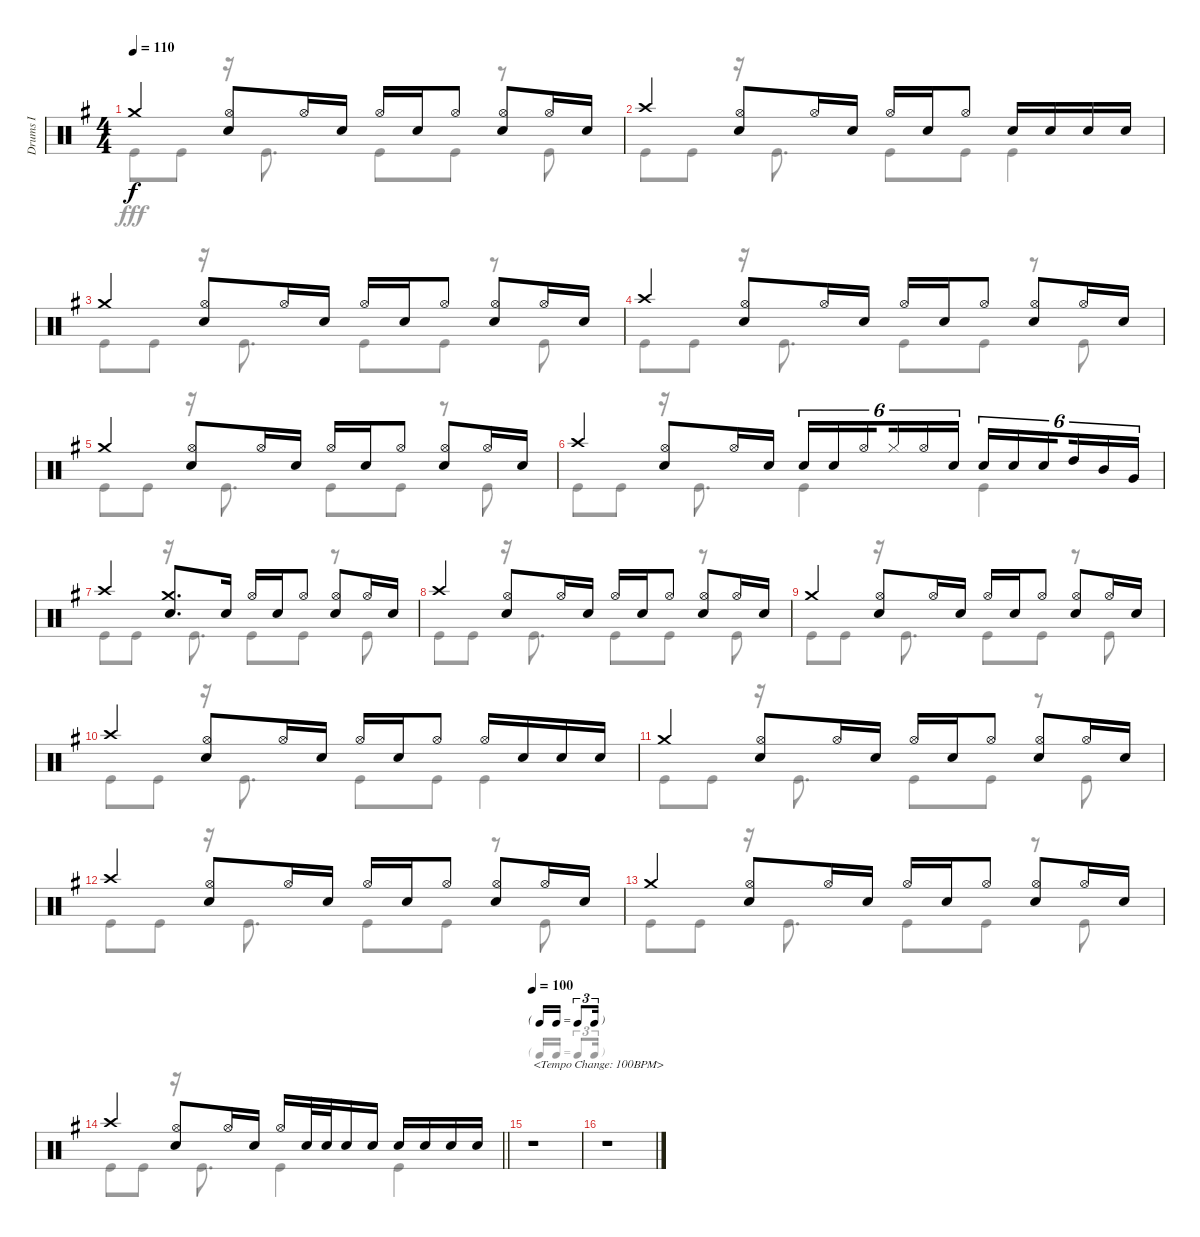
\track ("Drums I" "Drums I") {instrument percussion}
\staff {score}
\articulation defaults
\voice
\ts (4 4)
\tempo 110
\clef neutral
\ks g "Crash medium (hit)".4{dy f}
("Hi-Hat (open)" "Snare (hit) 2").8 "Hi-Hat (open)".16 "Snare (hit) 2".16 "Hi-Hat (open)".16 "Snare (hit) 2".16 "Hi-Hat (open)".8 ("Hi-Hat (open)" "Snare (hit) 2").8 "Hi-Hat (open)".16 "Snare (hit) 2".16 |
"Crash high (hit)".4 ("Hi-Hat (open)" "Snare (hit) 2").8 "Hi-Hat (open)".16 "Snare (hit) 2".16 "Hi-Hat (open)".16 "Snare (hit) 2".16 "Hi-Hat (open)".8 "Snare (hit) 2".16 "Snare (hit) 2".16 "Snare (hit) 2".16 "Snare (hit) 2".16 |
"Crash medium (hit)".4 ("Hi-Hat (open)" "Snare (hit) 2").8 "Hi-Hat (open)".16 "Snare (hit) 2".16 "Hi-Hat (open)".16 "Snare (hit) 2".16 "Hi-Hat (open)".8 ("Hi-Hat (open)" "Snare (hit) 2").8 "Hi-Hat (open)".16 "Snare (hit) 2".16 |
"Crash high (hit)".4 ("Hi-Hat (open)" "Snare (hit) 2").8 "Hi-Hat (open)".16 "Snare (hit) 2".16 "Hi-Hat (open)".16 "Snare (hit) 2".16 "Hi-Hat (open)".8 ("Hi-Hat (open)" "Snare (hit) 2").8 "Hi-Hat (open)".16 "Snare (hit) 2".16 |
"Crash medium (hit)".4 ("Hi-Hat (open)" "Snare (hit) 2").8 "Hi-Hat (open)".16 "Snare (hit) 2".16 "Hi-Hat (open)".16 "Snare (hit) 2".16 "Hi-Hat (open)".8 ("Hi-Hat (open)" "Snare (hit) 2").8 "Hi-Hat (open)".16 "Snare (hit) 2".16 |
"Crash high (hit)".4 ("Hi-Hat (open)" "Snare (hit) 2").8 "Hi-Hat (open)".16 "Snare (hit) 2".16 "Snare (hit) 2".16{tu (6 4)} "Snare (hit) 2".16{tu (6 4)} "Hi-Hat (open)".16{tu (6 4) beam splitsecondary} "Hi-Hat (closed)".16{tu (6 4)} "Hi-Hat (open)".16{tu (6 4)} "Snare (hit) 2".16{tu (6 4)} "Snare (hit) 2".16{tu (6 4)} "Snare (hit) 2".16{tu (6 4)} "Snare (hit) 2".16{tu (6 4) beam splitsecondary} "High Tom (hit)".16{tu (6 4)} "Mid Tom (hit)".16{tu (6 4)} "Very Low Tom (hit)".16{tu (6 4)} |
"Crash high (hit)".4 ("Crash medium (hit)" "Snare (hit) 2").8{d} "Snare (hit) 2".16 "Hi-Hat (open)".16 "Snare (hit) 2".16 "Hi-Hat (open)".8 ("Hi-Hat (open)" "Snare (hit) 2").8 "Hi-Hat (open)".16 "Snare (hit) 2".16 |
"Crash high (hit)".4 ("Hi-Hat (open)" "Snare (hit) 2").8 "Hi-Hat (open)".16 "Snare (hit) 2".16 "Hi-Hat (open)".16 "Snare (hit) 2".16 "Hi-Hat (open)".8 ("Hi-Hat (open)" "Snare (hit) 2").8 "Hi-Hat (open)".16 "Snare (hit) 2".16 |
"Crash medium (hit)".4 ("Hi-Hat (open)" "Snare (hit) 2").8 "Hi-Hat (open)".16 "Snare (hit) 2".16 "Hi-Hat (open)".16 "Snare (hit) 2".16 "Hi-Hat (open)".8 ("Hi-Hat (open)" "Snare (hit) 2").8 "Hi-Hat (open)".16 "Snare (hit) 2".16 |
"Crash high (hit)".4 ("Hi-Hat (open)" "Snare (hit) 2").8 "Hi-Hat (open)".16 "Snare (hit) 2".16 "Hi-Hat (open)".16 "Snare (hit) 2".16 "Hi-Hat (open)".8 "Hi-Hat (open)".16 "Snare (hit) 2".16 "Snare (hit) 2".16 "Snare (hit) 2".16 |
"Crash medium (hit)".4 ("Hi-Hat (open)" "Snare (hit) 2").8 "Hi-Hat (open)".16 "Snare (hit) 2".16 "Hi-Hat (open)".16 "Snare (hit) 2".16 "Hi-Hat (open)".8 ("Hi-Hat (open)" "Snare (hit) 2").8 "Hi-Hat (open)".16 "Snare (hit) 2".16 |
"Crash high (hit)".4 ("Hi-Hat (open)" "Snare (hit) 2").8 "Hi-Hat (open)".16 "Snare (hit) 2".16 "Hi-Hat (open)".16 "Snare (hit) 2".16 "Hi-Hat (open)".8 ("Hi-Hat (open)" "Snare (hit) 2").8 "Hi-Hat (open)".16 "Snare (hit) 2".16 |
"Crash medium (hit)".4 ("Hi-Hat (open)" "Snare (hit) 2").8 "Hi-Hat (open)".16 "Snare (hit) 2".16 "Hi-Hat (open)".16 "Snare (hit) 2".16 "Hi-Hat (open)".8 ("Hi-Hat (open)" "Snare (hit) 2").8 "Hi-Hat (open)".16 "Snare (hit) 2".16 |
\barLineRight lightlight "Crash high (hit)".4
("Hi-Hat (open)" "Snare (hit) 2").8 "Hi-Hat (open)".16 "Snare (hit) 2".16 "Hi-Hat (open)".16 "Snare (hit) 2".32 "Snare (hit) 2".32 "Snare (hit) 2".16 "Snare (hit) 2".16 "Snare (hit) 2".16 "Snare (hit) 2".16 "Snare (hit) 2".16 "Snare (hit) 2".16 |
\tf triplet16th
\tempo 100
r.1{txt "<Tempo Change: 100BPM>"} |
r.1
\voice
\clef neutral
\ottava regular
\simile none
\ks g "Kick (hit)".8{dy fff} "Kick (hit)".8
r.16 "Kick (hit)".8{d} "Kick (hit)".8 "Kick (hit)".8 r.8 "Kick (hit)".8 |
"Kick (hit)".8 "Kick (hit)".8 r.16 "Kick (hit)".8{d} "Kick (hit)".8 "Kick (hit)".8 "Kick (hit)".4 |
"Kick (hit)".8 "Kick (hit)".8 r.16 "Kick (hit)".8{d} "Kick (hit)".8 "Kick (hit)".8 r.8 "Kick (hit)".8 |
"Kick (hit)".8 "Kick (hit)".8 r.16 "Kick (hit)".8{d} "Kick (hit)".8 "Kick (hit)".8 r.8 "Kick (hit)".8 |
"Kick (hit)".8 "Kick (hit)".8 r.16 "Kick (hit)".8{d} "Kick (hit)".8 "Kick (hit)".8 r.8 "Kick (hit)".8 |
"Kick (hit)".8 "Kick (hit)".8 r.16 "Kick (hit)".8{d} "Kick (hit)".4 "Kick (hit)".4 |
"Kick (hit)".8 "Kick (hit)".8 r.16 "Kick (hit)".8{d} "Kick (hit)".8 "Kick (hit)".8 r.8 "Kick (hit)".8 |
"Kick (hit)".8 "Kick (hit)".8 r.16 "Kick (hit)".8{d} "Kick (hit)".8 "Kick (hit)".8 r.8 "Kick (hit)".8 |
"Kick (hit)".8 "Kick (hit)".8 r.16 "Kick (hit)".8{d} "Kick (hit)".8 "Kick (hit)".8 r.8 "Kick (hit)".8 |
"Kick (hit)".8 "Kick (hit)".8 r.16 "Kick (hit)".8{d} "Kick (hit)".8 "Kick (hit)".8 "Kick (hit)".4 |
"Kick (hit)".8 "Kick (hit)".8 r.16 "Kick (hit)".8{d} "Kick (hit)".8 "Kick (hit)".8 r.8 "Kick (hit)".8 |
"Kick (hit)".8 "Kick (hit)".8 r.16 "Kick (hit)".8{d} "Kick (hit)".8 "Kick (hit)".8 r.8 "Kick (hit)".8 |
"Kick (hit)".8 "Kick (hit)".8 r.16 "Kick (hit)".8{d} "Kick (hit)".8 "Kick (hit)".8 r.8 "Kick (hit)".8 |
\barLineRight lightlight "Kick (hit)".8 "Kick (hit)".8
r.16 "Kick (hit)".8{d} "Kick (hit)".4 "Kick (hit)".4 |
r.1 |
r.1
